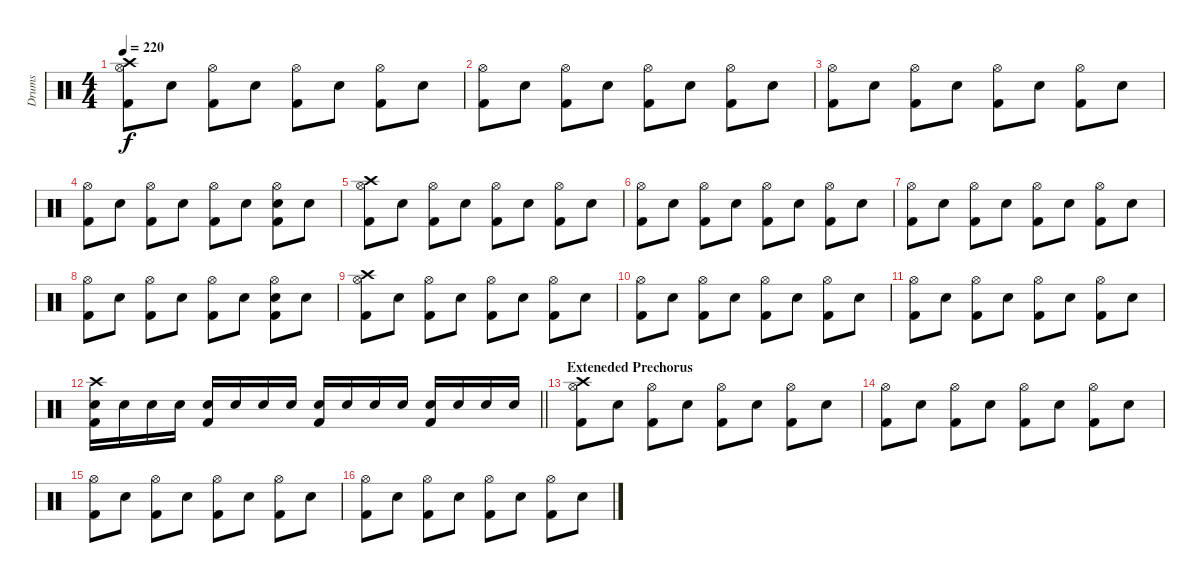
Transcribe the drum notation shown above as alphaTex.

\track ("Drums" "Drums") {instrument percussion}
\staff {score}
\articulation defaults
\ts (4 4)
\tempo 220
\clef neutral
\ks c
("Crash high (hit)" "Hi-Hat (open)" "Kick (hit) 2").8{dy f} "Snare (hit) 2".8 ("Hi-Hat (open)" "Kick (hit) 2").8 "Snare (hit) 2".8 ("Hi-Hat (open)" "Kick (hit) 2").8 "Snare (hit) 2".8 ("Hi-Hat (open)" "Kick (hit) 2").8 "Snare (hit) 2".8 |
("Hi-Hat (open)" "Kick (hit) 2").8 "Snare (hit) 2".8 ("Hi-Hat (open)" "Kick (hit) 2").8 "Snare (hit) 2".8 ("Hi-Hat (open)" "Kick (hit) 2").8 "Snare (hit) 2".8 ("Hi-Hat (open)" "Kick (hit) 2").8 "Snare (hit) 2".8 |
("Hi-Hat (open)" "Kick (hit) 2").8 "Snare (hit) 2".8 ("Hi-Hat (open)" "Kick (hit) 2").8 "Snare (hit) 2".8 ("Hi-Hat (open)" "Kick (hit) 2").8 "Snare (hit) 2".8 ("Hi-Hat (open)" "Kick (hit) 2").8 "Snare (hit) 2".8 |
("Hi-Hat (open)" "Kick (hit) 2").8 "Snare (hit) 2".8 ("Hi-Hat (open)" "Kick (hit) 2").8 "Snare (hit) 2".8 ("Hi-Hat (open)" "Kick (hit) 2").8 "Snare (hit) 2".8 ("Hi-Hat (open)" "Snare (hit) 2" "Kick (hit) 2").8 "Snare (hit) 2".8 |
("Crash high (hit)" "Hi-Hat (open)" "Kick (hit) 2").8 "Snare (hit) 2".8 ("Hi-Hat (open)" "Kick (hit) 2").8 "Snare (hit) 2".8 ("Hi-Hat (open)" "Kick (hit) 2").8 "Snare (hit) 2".8 ("Hi-Hat (open)" "Kick (hit) 2").8 "Snare (hit) 2".8 |
("Hi-Hat (open)" "Kick (hit) 2").8 "Snare (hit) 2".8 ("Hi-Hat (open)" "Kick (hit) 2").8 "Snare (hit) 2".8 ("Hi-Hat (open)" "Kick (hit) 2").8 "Snare (hit) 2".8 ("Hi-Hat (open)" "Kick (hit) 2").8 "Snare (hit) 2".8 |
("Hi-Hat (open)" "Kick (hit) 2").8 "Snare (hit) 2".8 ("Hi-Hat (open)" "Kick (hit) 2").8 "Snare (hit) 2".8 ("Hi-Hat (open)" "Kick (hit) 2").8 "Snare (hit) 2".8 ("Hi-Hat (open)" "Kick (hit) 2").8 "Snare (hit) 2".8 |
("Hi-Hat (open)" "Kick (hit) 2").8 "Snare (hit) 2".8 ("Hi-Hat (open)" "Kick (hit) 2").8 "Snare (hit) 2".8 ("Hi-Hat (open)" "Kick (hit) 2").8 "Snare (hit) 2".8 ("Hi-Hat (open)" "Snare (hit) 2" "Kick (hit) 2").8 "Snare (hit) 2".8 |
("Crash high (hit)" "Hi-Hat (open)" "Kick (hit) 2").8 "Snare (hit) 2".8 ("Hi-Hat (open)" "Kick (hit) 2").8 "Snare (hit) 2".8 ("Hi-Hat (open)" "Kick (hit) 2").8 "Snare (hit) 2".8 ("Hi-Hat (open)" "Kick (hit) 2").8 "Snare (hit) 2".8 |
("Hi-Hat (open)" "Kick (hit) 2").8 "Snare (hit) 2".8 ("Hi-Hat (open)" "Kick (hit) 2").8 "Snare (hit) 2".8 ("Hi-Hat (open)" "Kick (hit) 2").8 "Snare (hit) 2".8 ("Hi-Hat (open)" "Kick (hit) 2").8 "Snare (hit) 2".8 |
("Hi-Hat (open)" "Kick (hit) 2").8 "Snare (hit) 2".8 ("Hi-Hat (open)" "Kick (hit) 2").8 "Snare (hit) 2".8 ("Hi-Hat (open)" "Kick (hit) 2").8 "Snare (hit) 2".8 ("Hi-Hat (open)" "Kick (hit) 2").8 "Snare (hit) 2".8 |
\barLineRight lightlight
("Crash high (hit)" "Snare (hit) 2" "Kick (hit) 2").16 "Snare (hit) 2".16 "Snare (hit) 2".16 "Snare (hit) 2".16 ("Snare (hit) 2" "Kick (hit) 2").16 "Snare (hit) 2".16 "Snare (hit) 2".16 "Snare (hit) 2".16 ("Snare (hit) 2" "Kick (hit) 2").16 "Snare (hit) 2".16 "Snare (hit) 2".16 "Snare (hit) 2".16 ("Snare (hit) 2" "Kick (hit) 2").16 "Snare (hit) 2".16 "Snare (hit) 2".16 "Snare (hit) 2".16 |
\section ("" "Exteneded Prechorus")
("Crash high (hit)" "Hi-Hat (open)" "Kick (hit) 2").8 "Snare (hit) 2".8 ("Hi-Hat (open)" "Kick (hit) 2").8 "Snare (hit) 2".8 ("Hi-Hat (open)" "Kick (hit) 2").8 "Snare (hit) 2".8 ("Hi-Hat (open)" "Kick (hit) 2").8 "Snare (hit) 2".8 |
("Hi-Hat (open)" "Kick (hit) 2").8 "Snare (hit) 2".8 ("Hi-Hat (open)" "Kick (hit) 2").8 "Snare (hit) 2".8 ("Hi-Hat (open)" "Kick (hit) 2").8 "Snare (hit) 2".8 ("Hi-Hat (open)" "Kick (hit) 2").8 "Snare (hit) 2".8 |
("Hi-Hat (open)" "Kick (hit) 2").8 "Snare (hit) 2".8 ("Hi-Hat (open)" "Kick (hit) 2").8 "Snare (hit) 2".8 ("Hi-Hat (open)" "Kick (hit) 2").8 "Snare (hit) 2".8 ("Hi-Hat (open)" "Kick (hit) 2").8 "Snare (hit) 2".8 |
("Hi-Hat (open)" "Kick (hit) 2").8 "Snare (hit) 2".8 ("Hi-Hat (open)" "Kick (hit) 2").8 "Snare (hit) 2".8 ("Hi-Hat (open)" "Kick (hit) 2").8 "Snare (hit) 2".8 ("Hi-Hat (open)" "Kick (hit) 2").8 "Snare (hit) 2".8
